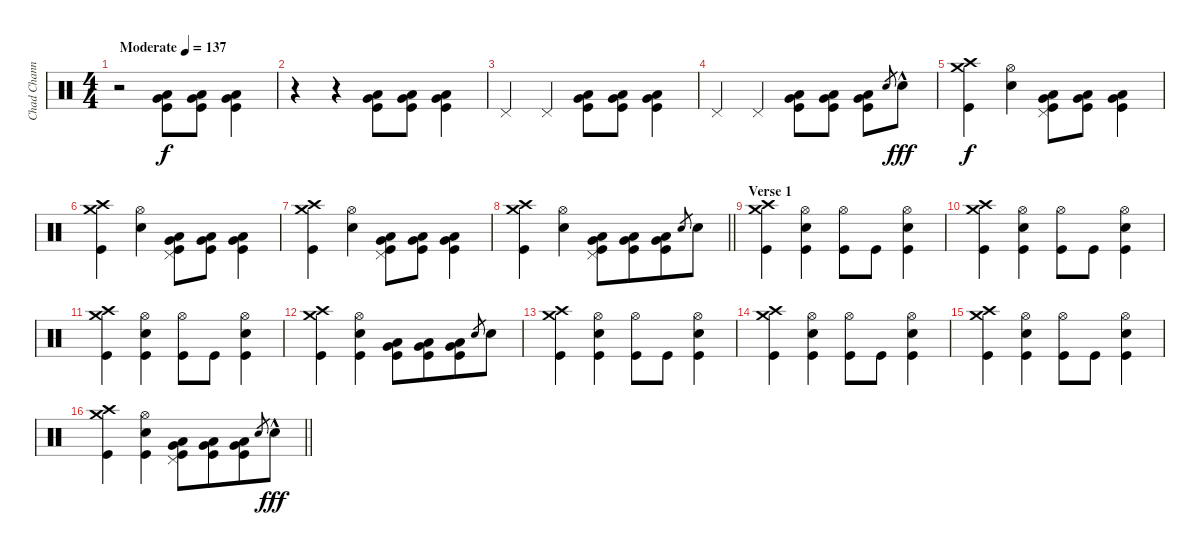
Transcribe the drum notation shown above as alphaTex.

\track ("Chad Channing" "Chad Chann") {instrument percussion}
\staff {score}
\articulation defaults
\ts (4 4)
\tempo (137 "Moderate")
\clef neutral
\ks c
r.2{dy f} ("Very Low Tom (hit)" "Low Floor Tom (hit)" "Kick (hit)").8{beam Down} ("Very Low Tom (hit)" "Low Floor Tom (hit)" "Kick (hit)").8{beam Down} ("Very Low Tom (hit)" "Low Floor Tom (hit)" "Kick (hit)").4{beam Down} |
r.4 r.4 ("Very Low Tom (hit)" "Low Floor Tom (hit)" "Kick (hit)").8{beam Down} ("Very Low Tom (hit)" "Low Floor Tom (hit)" "Kick (hit)").8{beam Down} ("Very Low Tom (hit)" "Low Floor Tom (hit)" "Kick (hit)").4{beam Down} |
"Pedal Hi-Hat (hit)".4 "Pedal Hi-Hat (hit)".4 ("Very Low Tom (hit)" "Low Floor Tom (hit)" "Kick (hit)").8{beam Down} ("Very Low Tom (hit)" "Low Floor Tom (hit)" "Kick (hit)").8{beam Down} ("Very Low Tom (hit)" "Low Floor Tom (hit)" "Kick (hit)").4{beam Down} |
"Pedal Hi-Hat (hit)".4 "Pedal Hi-Hat (hit)".4 ("Very Low Tom (hit)" "Low Floor Tom (hit)" "Kick (hit)").8{beam Down} ("Very Low Tom (hit)" "Low Floor Tom (hit)" "Kick (hit)").8{beam Down} ("Very Low Tom (hit)" "Low Floor Tom (hit)" "Kick (hit)").8{beam Down} "Snare (hit) 2".8{gr} "Snare (hit) 2"{hac}.8{dy fff beam Down} |
("Crash medium (hit)" "Crash high (hit)" "Kick (hit)").4{dy f} ("Hi-Hat (open)" "Snare (hit) 2").4 ("Pedal Hi-Hat (hit)" "Very Low Tom (hit)" "Low Floor Tom (hit)" "Kick (hit)").8{beam Down} ("Very Low Tom (hit)" "Low Floor Tom (hit)" "Kick (hit)").8{beam Down} ("Very Low Tom (hit)" "Low Floor Tom (hit)" "Kick (hit)").4{beam Down} |
("Crash medium (hit)" "Crash high (hit)" "Kick (hit)").4 ("Hi-Hat (open)" "Snare (hit) 2").4 ("Pedal Hi-Hat (hit)" "Very Low Tom (hit)" "Low Floor Tom (hit)" "Kick (hit)").8{beam Down} ("Very Low Tom (hit)" "Low Floor Tom (hit)" "Kick (hit)").8{beam Down} ("Very Low Tom (hit)" "Low Floor Tom (hit)" "Kick (hit)").4{beam Down} |
("Crash medium (hit)" "Crash high (hit)" "Kick (hit)").4 ("Hi-Hat (open)" "Snare (hit) 2").4 ("Pedal Hi-Hat (hit)" "Very Low Tom (hit)" "Low Floor Tom (hit)" "Kick (hit)").8{beam Down} ("Very Low Tom (hit)" "Low Floor Tom (hit)" "Kick (hit)").8{beam Down} ("Very Low Tom (hit)" "Low Floor Tom (hit)" "Kick (hit)").4{beam Down} |
\barLineRight lightlight
("Crash medium (hit)" "Crash high (hit)" "Kick (hit)").4 ("Hi-Hat (open)" "Snare (hit) 2").4 ("Pedal Hi-Hat (hit)" "Very Low Tom (hit)" "Low Floor Tom (hit)" "Kick (hit)").8{beam Down} ("Very Low Tom (hit)" "Low Floor Tom (hit)" "Kick (hit)").8{beam Down beam merge} ("Very Low Tom (hit)" "Low Floor Tom (hit)" "Kick (hit)").8{beam Down} "Snare (hit) 2".8{gr} "Snare (hit) 2".8{beam Down} |
\section ("" "Verse 1")
("Crash medium (hit)" "Crash high (hit)" "Kick (hit)").4 ("Hi-Hat (open)" "Snare (hit) 2" "Kick (hit)").4 ("Hi-Hat (open)" "Kick (hit)").8 "Kick (hit)".8 ("Hi-Hat (open)" "Snare (hit) 2" "Kick (hit)").4 |
("Crash medium (hit)" "Crash high (hit)" "Kick (hit)").4 ("Hi-Hat (open)" "Snare (hit) 2" "Kick (hit)").4 ("Hi-Hat (open)" "Kick (hit)").8 "Kick (hit)".8 ("Hi-Hat (open)" "Snare (hit) 2" "Kick (hit)").4 |
("Crash medium (hit)" "Crash high (hit)" "Kick (hit)").4 ("Hi-Hat (open)" "Snare (hit) 2" "Kick (hit)").4 ("Hi-Hat (open)" "Kick (hit)").8 "Kick (hit)".8 ("Hi-Hat (open)" "Snare (hit) 2" "Kick (hit)").4 |
("Crash medium (hit)" "Crash high (hit)" "Kick (hit)").4 ("Hi-Hat (open)" "Snare (hit) 2" "Kick (hit)").4 ("Very Low Tom (hit)" "Low Floor Tom (hit)" "Kick (hit)").8{beam Down} ("Very Low Tom (hit)" "Low Floor Tom (hit)" "Kick (hit)").8{beam Down beam merge} ("Very Low Tom (hit)" "Low Floor Tom (hit)" "Kick (hit)").8{beam Down} "Snare (hit) 2".8{gr} "Snare (hit) 2".8{beam Down} |
("Crash medium (hit)" "Crash high (hit)" "Kick (hit)").4 ("Hi-Hat (open)" "Snare (hit) 2" "Kick (hit)").4 ("Hi-Hat (open)" "Kick (hit)").8 "Kick (hit)".8 ("Hi-Hat (open)" "Snare (hit) 2" "Kick (hit)").4 |
("Crash medium (hit)" "Crash high (hit)" "Kick (hit)").4 ("Hi-Hat (open)" "Snare (hit) 2" "Kick (hit)").4 ("Hi-Hat (open)" "Kick (hit)").8 "Kick (hit)".8 ("Hi-Hat (open)" "Snare (hit) 2" "Kick (hit)").4 |
("Crash medium (hit)" "Crash high (hit)" "Kick (hit)").4 ("Hi-Hat (open)" "Snare (hit) 2" "Kick (hit)").4 ("Hi-Hat (open)" "Kick (hit)").8 "Kick (hit)".8 ("Hi-Hat (open)" "Snare (hit) 2" "Kick (hit)").4 |
\barLineRight lightlight
("Crash medium (hit)" "Crash high (hit)" "Kick (hit)").4 ("Hi-Hat (open)" "Snare (hit) 2" "Kick (hit)").4 ("Pedal Hi-Hat (hit)" "Very Low Tom (hit)" "Low Floor Tom (hit)" "Kick (hit)").8{beam Down} ("Very Low Tom (hit)" "Low Floor Tom (hit)" "Kick (hit)").8{beam Down beam merge} ("Very Low Tom (hit)" "Low Floor Tom (hit)" "Kick (hit)").8{beam Down} "Snare (hit) 2".8{gr} "Snare (hit) 2"{hac}.8{dy fff beam Down}
